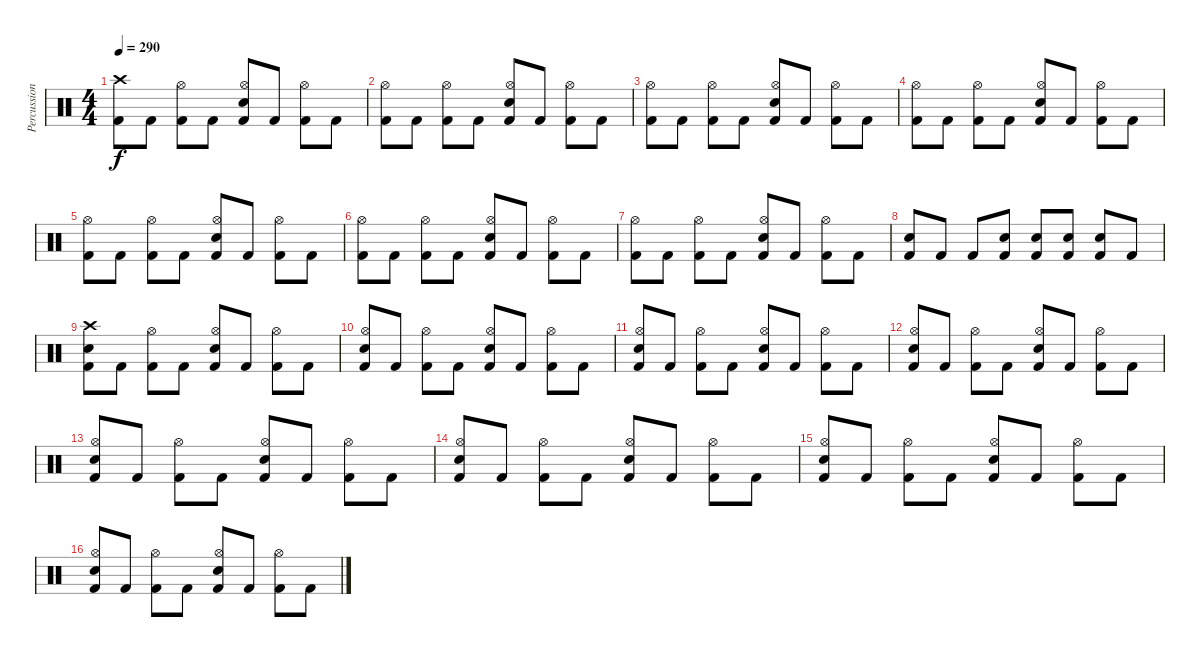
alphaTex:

\track ("Percussion" "Percussion") {instrument percussion}
\staff {score}
\articulation defaults
\ts (4 4)
\tempo 290
\clef neutral
\ks c
("Crash high (hit)" "Kick (hit) 2").8{dy f} "Kick (hit) 2".8 ("Hi-Hat (open)" "Kick (hit) 2").8 "Kick (hit) 2".8 ("Hi-Hat (open)" "Snare (hit) 2" "Kick (hit) 2").8 "Kick (hit) 2".8 ("Hi-Hat (open)" "Kick (hit) 2").8 "Kick (hit) 2".8 |
("Hi-Hat (open)" "Kick (hit) 2").8 "Kick (hit) 2".8 ("Hi-Hat (open)" "Kick (hit) 2").8 "Kick (hit) 2".8 ("Hi-Hat (open)" "Snare (hit) 2" "Kick (hit) 2").8 "Kick (hit) 2".8 ("Hi-Hat (open)" "Kick (hit) 2").8 "Kick (hit) 2".8 |
("Hi-Hat (open)" "Kick (hit) 2").8 "Kick (hit) 2".8 ("Hi-Hat (open)" "Kick (hit) 2").8 "Kick (hit) 2".8 ("Hi-Hat (open)" "Snare (hit) 2" "Kick (hit) 2").8 "Kick (hit) 2".8 ("Hi-Hat (open)" "Kick (hit) 2").8 "Kick (hit) 2".8 |
("Hi-Hat (open)" "Kick (hit) 2").8 "Kick (hit) 2".8 ("Hi-Hat (open)" "Kick (hit) 2").8 "Kick (hit) 2".8 ("Hi-Hat (open)" "Snare (hit) 2" "Kick (hit) 2").8 "Kick (hit) 2".8 ("Hi-Hat (open)" "Kick (hit) 2").8 "Kick (hit) 2".8 |
("Hi-Hat (open)" "Kick (hit) 2").8 "Kick (hit) 2".8 ("Hi-Hat (open)" "Kick (hit) 2").8 "Kick (hit) 2".8 ("Hi-Hat (open)" "Snare (hit) 2" "Kick (hit) 2").8 "Kick (hit) 2".8 ("Hi-Hat (open)" "Kick (hit) 2").8 "Kick (hit) 2".8 |
("Hi-Hat (open)" "Kick (hit) 2").8 "Kick (hit) 2".8 ("Hi-Hat (open)" "Kick (hit) 2").8 "Kick (hit) 2".8 ("Hi-Hat (open)" "Snare (hit) 2" "Kick (hit) 2").8 "Kick (hit) 2".8 ("Hi-Hat (open)" "Kick (hit) 2").8 "Kick (hit) 2".8 |
("Hi-Hat (open)" "Kick (hit) 2").8 "Kick (hit) 2".8 ("Hi-Hat (open)" "Kick (hit) 2").8 "Kick (hit) 2".8 ("Hi-Hat (open)" "Snare (hit) 2" "Kick (hit) 2").8 "Kick (hit) 2".8 ("Hi-Hat (open)" "Kick (hit) 2").8 "Kick (hit) 2".8 |
("Snare (hit) 2" "Kick (hit) 2").8 "Kick (hit) 2".8 "Kick (hit) 2".8 ("Snare (hit) 2" "Kick (hit) 2").8 ("Snare (hit) 2" "Kick (hit) 2").8 ("Snare (hit) 2" "Kick (hit) 2").8 ("Snare (hit) 2" "Kick (hit) 2").8 "Kick (hit) 2".8 |
("Crash high (hit)" "Snare (hit) 2" "Kick (hit) 2").8 "Kick (hit) 2".8 ("Hi-Hat (open)" "Kick (hit) 2").8 "Kick (hit) 2".8 ("Hi-Hat (open)" "Snare (hit) 2" "Kick (hit) 2").8 "Kick (hit) 2".8 ("Hi-Hat (open)" "Kick (hit) 2").8 "Kick (hit) 2".8 |
("Hi-Hat (open)" "Snare (hit) 2" "Kick (hit) 2").8 "Kick (hit) 2".8 ("Hi-Hat (open)" "Kick (hit) 2").8 "Kick (hit) 2".8 ("Hi-Hat (open)" "Snare (hit) 2" "Kick (hit) 2").8 "Kick (hit) 2".8 ("Hi-Hat (open)" "Kick (hit) 2").8 "Kick (hit) 2".8 |
("Hi-Hat (open)" "Snare (hit) 2" "Kick (hit) 2").8 "Kick (hit) 2".8 ("Hi-Hat (open)" "Kick (hit) 2").8 "Kick (hit) 2".8 ("Hi-Hat (open)" "Snare (hit) 2" "Kick (hit) 2").8 "Kick (hit) 2".8 ("Hi-Hat (open)" "Kick (hit) 2").8 "Kick (hit) 2".8 |
("Hi-Hat (open)" "Snare (hit) 2" "Kick (hit) 2").8 "Kick (hit) 2".8 ("Hi-Hat (open)" "Kick (hit) 2").8 "Kick (hit) 2".8 ("Hi-Hat (open)" "Snare (hit) 2" "Kick (hit) 2").8 "Kick (hit) 2".8 ("Hi-Hat (open)" "Kick (hit) 2").8 "Kick (hit) 2".8 |
("Hi-Hat (open)" "Snare (hit) 2" "Kick (hit) 2").8 "Kick (hit) 2".8 ("Hi-Hat (open)" "Kick (hit) 2").8 "Kick (hit) 2".8 ("Hi-Hat (open)" "Snare (hit) 2" "Kick (hit) 2").8 "Kick (hit) 2".8 ("Hi-Hat (open)" "Kick (hit) 2").8 "Kick (hit) 2".8 |
("Hi-Hat (open)" "Snare (hit) 2" "Kick (hit) 2").8 "Kick (hit) 2".8 ("Hi-Hat (open)" "Kick (hit) 2").8 "Kick (hit) 2".8 ("Hi-Hat (open)" "Snare (hit) 2" "Kick (hit) 2").8 "Kick (hit) 2".8 ("Hi-Hat (open)" "Kick (hit) 2").8 "Kick (hit) 2".8 |
("Hi-Hat (open)" "Snare (hit) 2" "Kick (hit) 2").8 "Kick (hit) 2".8 ("Hi-Hat (open)" "Kick (hit) 2").8 "Kick (hit) 2".8 ("Hi-Hat (open)" "Snare (hit) 2" "Kick (hit) 2").8 "Kick (hit) 2".8 ("Hi-Hat (open)" "Kick (hit) 2").8 "Kick (hit) 2".8 |
("Hi-Hat (open)" "Snare (hit) 2" "Kick (hit) 2").8 "Kick (hit) 2".8 ("Hi-Hat (open)" "Kick (hit) 2").8 "Kick (hit) 2".8 ("Hi-Hat (open)" "Snare (hit) 2" "Kick (hit) 2").8 "Kick (hit) 2".8 ("Hi-Hat (open)" "Kick (hit) 2").8 "Kick (hit) 2".8
